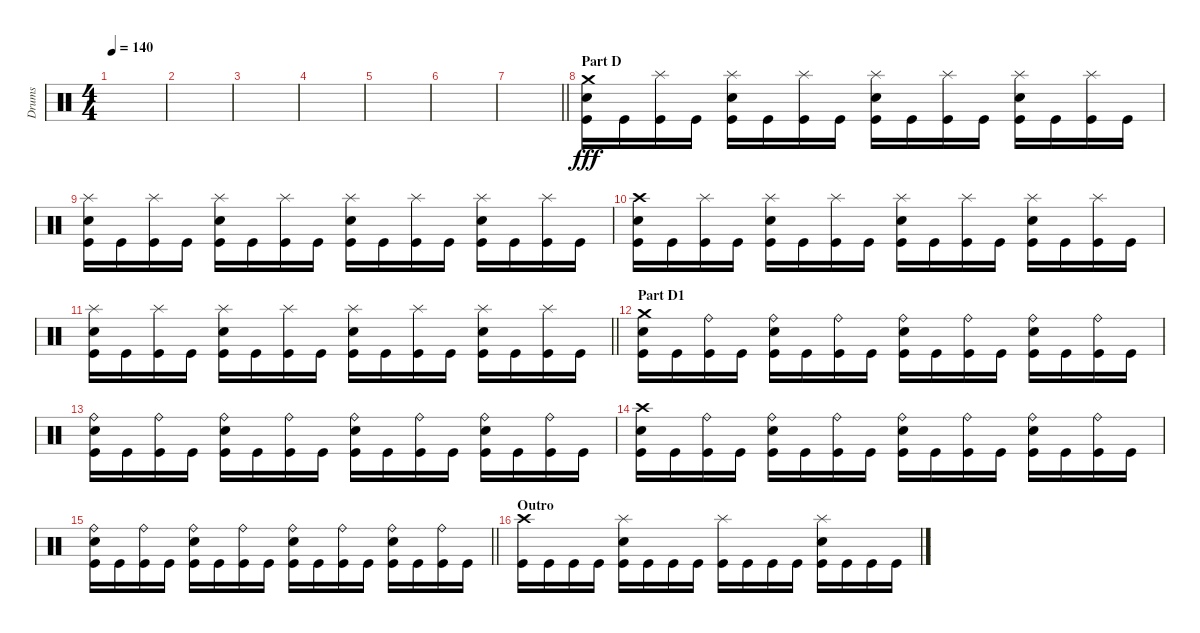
\track ("Drums" "Drums") {instrument percussion}
\staff {score}
\articulation defaults
\ts (4 4)
\tempo 140
\clef neutral
\ks c
|
|
|
|
|
|
\barLineRight lightlight
|
\section ("" "Part D")
("Crash medium (hit)" "Electric Snare (hit)" "Kick (hit)").16{dy fff} "Kick (hit)".16 ("Splash (hit)" "Kick (hit)").16 "Kick (hit)".16 ("Splash (hit)" "Electric Snare (hit)" "Kick (hit)").16 "Kick (hit)".16 ("Splash (hit)" "Kick (hit)").16 "Kick (hit)".16 ("Splash (hit)" "Electric Snare (hit)" "Kick (hit)").16 "Kick (hit)".16 ("Splash (hit)" "Kick (hit)").16 "Kick (hit)".16 ("Splash (hit)" "Electric Snare (hit)" "Kick (hit)").16 "Kick (hit)".16 ("Splash (hit)" "Kick (hit)").16 "Kick (hit)".16 |
("Splash (hit)" "Electric Snare (hit)" "Kick (hit)").16 "Kick (hit)".16 ("Splash (hit)" "Kick (hit)").16 "Kick (hit)".16 ("Splash (hit)" "Electric Snare (hit)" "Kick (hit)").16 "Kick (hit)".16 ("Splash (hit)" "Kick (hit)").16 "Kick (hit)".16 ("Splash (hit)" "Electric Snare (hit)" "Kick (hit)").16 "Kick (hit)".16 ("Splash (hit)" "Kick (hit)").16 "Kick (hit)".16 ("Splash (hit)" "Electric Snare (hit)" "Kick (hit)").16 "Kick (hit)".16 ("Splash (hit)" "Kick (hit)").16 "Kick (hit)".16 |
("Crash high (hit)" "Electric Snare (hit)" "Kick (hit)").16 "Kick (hit)".16 ("Splash (hit)" "Kick (hit)").16 "Kick (hit)".16 ("Splash (hit)" "Electric Snare (hit)" "Kick (hit)").16 "Kick (hit)".16 ("Splash (hit)" "Kick (hit)").16 "Kick (hit)".16 ("Splash (hit)" "Electric Snare (hit)" "Kick (hit)").16 "Kick (hit)".16 ("Splash (hit)" "Kick (hit)").16 "Kick (hit)".16 ("Splash (hit)" "Electric Snare (hit)" "Kick (hit)").16 "Kick (hit)".16 ("Splash (hit)" "Kick (hit)").16 "Kick (hit)".16 |
\barLineRight lightlight
("Splash (hit)" "Electric Snare (hit)" "Kick (hit)").16 "Kick (hit)".16 ("Splash (hit)" "Kick (hit)").16 "Kick (hit)".16 ("Splash (hit)" "Electric Snare (hit)" "Kick (hit)").16 "Kick (hit)".16 ("Splash (hit)" "Kick (hit)").16 "Kick (hit)".16 ("Splash (hit)" "Electric Snare (hit)" "Kick (hit)").16 "Kick (hit)".16 ("Splash (hit)" "Kick (hit)").16 "Kick (hit)".16 ("Splash (hit)" "Electric Snare (hit)" "Kick (hit)").16 "Kick (hit)".16 ("Splash (hit)" "Kick (hit)").16 "Kick (hit)".16 |
\section ("" "Part D1")
("Crash medium (hit)" "Electric Snare (hit)" "Kick (hit)").16 "Kick (hit)".16 ("Ride (bell)" "Kick (hit)").16 "Kick (hit)".16 ("Ride (bell)" "Electric Snare (hit)" "Kick (hit)").16 "Kick (hit)".16 ("Ride (bell)" "Kick (hit)").16 "Kick (hit)".16 ("Ride (bell)" "Electric Snare (hit)" "Kick (hit)").16 "Kick (hit)".16 ("Ride (bell)" "Kick (hit)").16 "Kick (hit)".16 ("Ride (bell)" "Electric Snare (hit)" "Kick (hit)").16 "Kick (hit)".16 ("Ride (bell)" "Kick (hit)").16 "Kick (hit)".16 |
("Ride (bell)" "Electric Snare (hit)" "Kick (hit)").16 "Kick (hit)".16 ("Ride (bell)" "Kick (hit)").16 "Kick (hit)".16 ("Ride (bell)" "Electric Snare (hit)" "Kick (hit)").16 "Kick (hit)".16 ("Ride (bell)" "Kick (hit)").16 "Kick (hit)".16 ("Ride (bell)" "Electric Snare (hit)" "Kick (hit)").16 "Kick (hit)".16 ("Ride (bell)" "Kick (hit)").16 "Kick (hit)".16 ("Ride (bell)" "Electric Snare (hit)" "Kick (hit)").16 "Kick (hit)".16 ("Ride (bell)" "Kick (hit)").16 "Kick (hit)".16 |
("Crash high (hit)" "Electric Snare (hit)" "Kick (hit)").16 "Kick (hit)".16 ("Ride (bell)" "Kick (hit)").16 "Kick (hit)".16 ("Ride (bell)" "Electric Snare (hit)" "Kick (hit)").16 "Kick (hit)".16 ("Ride (bell)" "Kick (hit)").16 "Kick (hit)".16 ("Ride (bell)" "Electric Snare (hit)" "Kick (hit)").16 "Kick (hit)".16 ("Ride (bell)" "Kick (hit)").16 "Kick (hit)".16 ("Ride (bell)" "Electric Snare (hit)" "Kick (hit)").16 "Kick (hit)".16 ("Ride (bell)" "Kick (hit)").16 "Kick (hit)".16 |
\barLineRight lightlight
("Ride (bell)" "Electric Snare (hit)" "Kick (hit)").16 "Kick (hit)".16 ("Ride (bell)" "Kick (hit)").16 "Kick (hit)".16 ("Ride (bell)" "Electric Snare (hit)" "Kick (hit)").16 "Kick (hit)".16 ("Ride (bell)" "Kick (hit)").16 "Kick (hit)".16 ("Ride (bell)" "Electric Snare (hit)" "Kick (hit)").16 "Kick (hit)".16 ("Ride (bell)" "Kick (hit)").16 "Kick (hit)".16 ("Ride (bell)" "Electric Snare (hit)" "Kick (hit)").16 "Kick (hit)".16 ("Ride (bell)" "Kick (hit)").16 "Kick (hit)".16 |
\section ("" "Outro")
("Crash high (hit)" "Kick (hit)").16 "Kick (hit)".16 "Kick (hit)".16 "Kick (hit)".16 ("Splash (hit)" "Electric Snare (hit)" "Kick (hit)").16 "Kick (hit)".16 "Kick (hit)".16 "Kick (hit)".16 ("Splash (hit)" "Kick (hit)").16 "Kick (hit)".16 "Kick (hit)".16 "Kick (hit)".16 ("Splash (hit)" "Electric Snare (hit)" "Kick (hit)").16 "Kick (hit)".16 "Kick (hit)".16 "Kick (hit)".16
